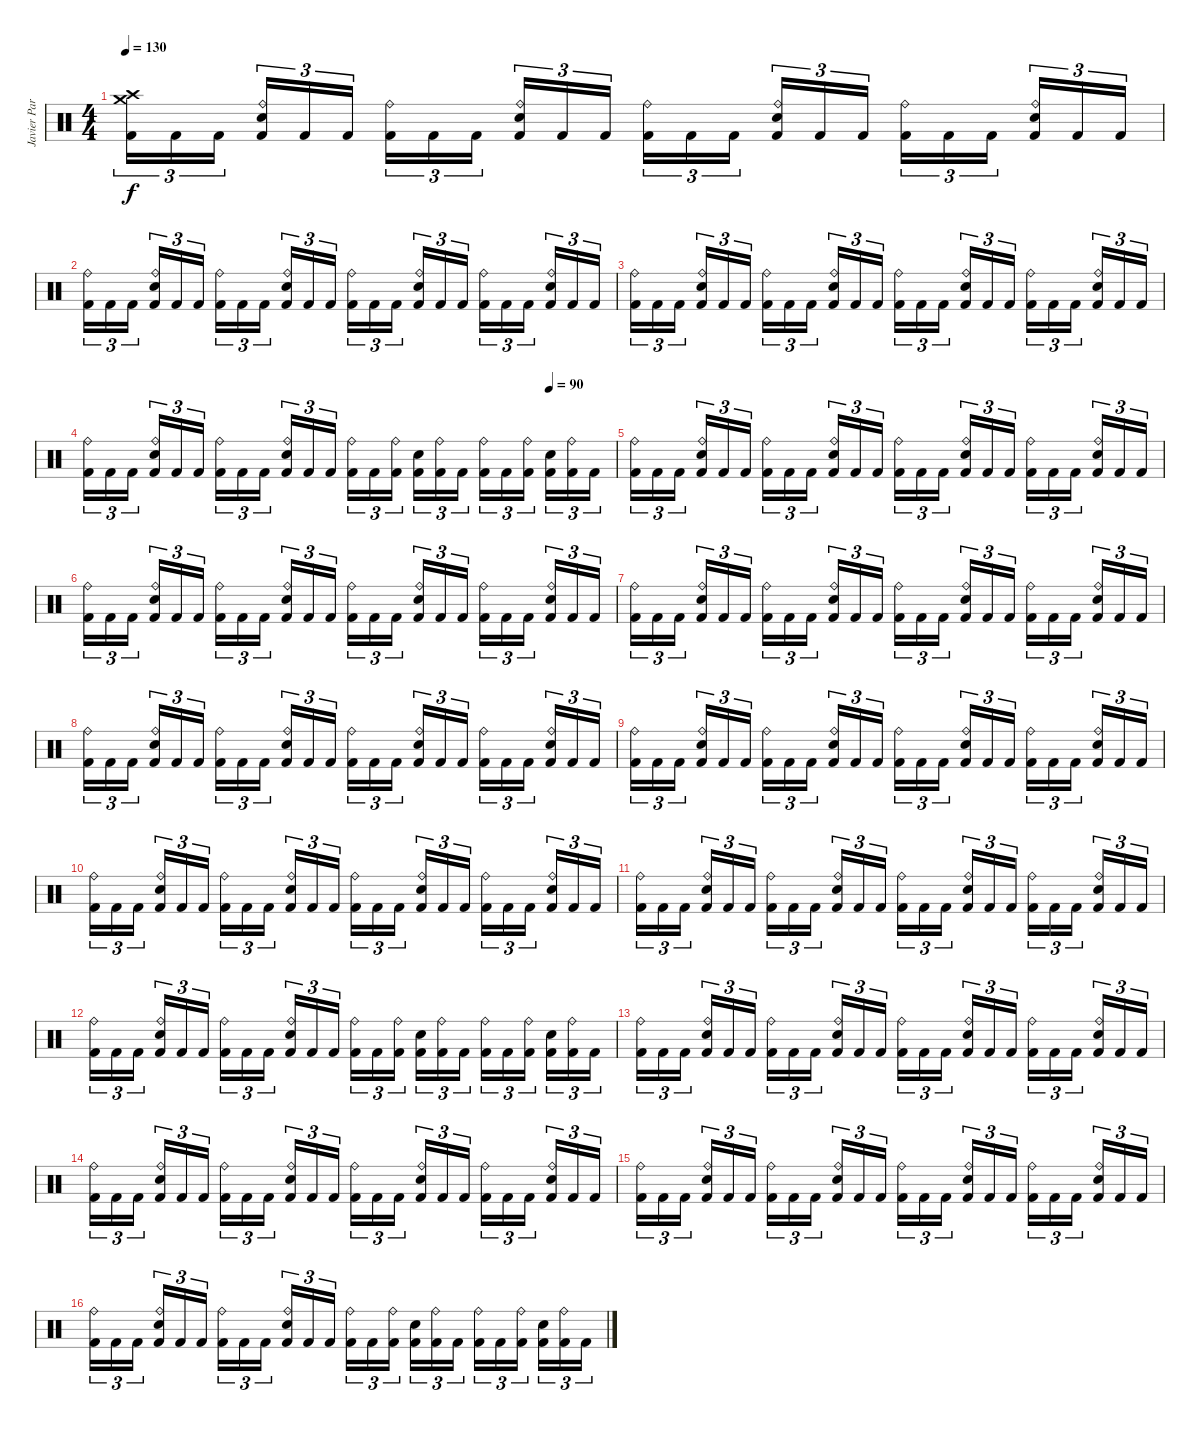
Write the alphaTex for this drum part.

\track ("Javier Partida" "Javier Par") {instrument percussion}
\staff {score}
\articulation defaults
\ts (4 4)
\tempo 130
\tempo 90
\tempo 130
\clef neutral
\ks c
("Crash medium (hit)" "Crash high (hit)" "Kick (hit) 2").16{tu (3 2) dy f} "Kick (hit) 2".16{tu (3 2)} "Kick (hit) 2".16{tu (3 2)} ("Ride (bell)" "Electric Snare (hit)" "Kick (hit) 2").16{tu (3 2)} "Kick (hit) 2".16{tu (3 2)} "Kick (hit) 2".16{tu (3 2)} ("Ride (bell)" "Kick (hit) 2").16{tu (3 2)} "Kick (hit) 2".16{tu (3 2)} "Kick (hit) 2".16{tu (3 2)} ("Ride (bell)" "Electric Snare (hit)" "Kick (hit) 2").16{tu (3 2)} "Kick (hit) 2".16{tu (3 2)} "Kick (hit) 2".16{tu (3 2)} ("Ride (bell)" "Kick (hit) 2").16{tu (3 2)} "Kick (hit) 2".16{tu (3 2)} "Kick (hit) 2".16{tu (3 2)} ("Ride (bell)" "Electric Snare (hit)" "Kick (hit) 2").16{tu (3 2)} "Kick (hit) 2".16{tu (3 2)} "Kick (hit) 2".16{tu (3 2)} ("Ride (bell)" "Kick (hit) 2").16{tu (3 2)} "Kick (hit) 2".16{tu (3 2)} "Kick (hit) 2".16{tu (3 2)} ("Ride (bell)" "Electric Snare (hit)" "Kick (hit) 2").16{tu (3 2)} "Kick (hit) 2".16{tu (3 2)} "Kick (hit) 2".16{tu (3 2)} |
("Ride (bell)" "Kick (hit) 2").16{tu (3 2)} "Kick (hit) 2".16{tu (3 2)} "Kick (hit) 2".16{tu (3 2)} ("Ride (bell)" "Electric Snare (hit)" "Kick (hit) 2").16{tu (3 2)} "Kick (hit) 2".16{tu (3 2)} "Kick (hit) 2".16{tu (3 2)} ("Ride (bell)" "Kick (hit) 2").16{tu (3 2)} "Kick (hit) 2".16{tu (3 2)} "Kick (hit) 2".16{tu (3 2)} ("Ride (bell)" "Electric Snare (hit)" "Kick (hit) 2").16{tu (3 2)} "Kick (hit) 2".16{tu (3 2)} "Kick (hit) 2".16{tu (3 2)} ("Ride (bell)" "Kick (hit) 2").16{tu (3 2)} "Kick (hit) 2".16{tu (3 2)} "Kick (hit) 2".16{tu (3 2)} ("Ride (bell)" "Electric Snare (hit)" "Kick (hit) 2").16{tu (3 2)} "Kick (hit) 2".16{tu (3 2)} "Kick (hit) 2".16{tu (3 2)} ("Ride (bell)" "Kick (hit) 2").16{tu (3 2)} "Kick (hit) 2".16{tu (3 2)} "Kick (hit) 2".16{tu (3 2)} ("Ride (bell)" "Electric Snare (hit)" "Kick (hit) 2").16{tu (3 2)} "Kick (hit) 2".16{tu (3 2)} "Kick (hit) 2".16{tu (3 2)} |
("Ride (bell)" "Kick (hit) 2").16{tu (3 2)} "Kick (hit) 2".16{tu (3 2)} "Kick (hit) 2".16{tu (3 2)} ("Ride (bell)" "Electric Snare (hit)" "Kick (hit) 2").16{tu (3 2)} "Kick (hit) 2".16{tu (3 2)} "Kick (hit) 2".16{tu (3 2)} ("Ride (bell)" "Kick (hit) 2").16{tu (3 2)} "Kick (hit) 2".16{tu (3 2)} "Kick (hit) 2".16{tu (3 2)} ("Ride (bell)" "Electric Snare (hit)" "Kick (hit) 2").16{tu (3 2)} "Kick (hit) 2".16{tu (3 2)} "Kick (hit) 2".16{tu (3 2)} ("Ride (bell)" "Kick (hit) 2").16{tu (3 2)} "Kick (hit) 2".16{tu (3 2)} "Kick (hit) 2".16{tu (3 2)} ("Ride (bell)" "Electric Snare (hit)" "Kick (hit) 2").16{tu (3 2)} "Kick (hit) 2".16{tu (3 2)} "Kick (hit) 2".16{tu (3 2)} ("Ride (bell)" "Kick (hit) 2").16{tu (3 2)} "Kick (hit) 2".16{tu (3 2)} "Kick (hit) 2".16{tu (3 2)} ("Ride (bell)" "Electric Snare (hit)" "Kick (hit) 2").16{tu (3 2)} "Kick (hit) 2".16{tu (3 2)} "Kick (hit) 2".16{tu (3 2)} |
\tempo (90 0.875)
("Ride (bell)" "Kick (hit) 2").16{tu (3 2)} "Kick (hit) 2".16{tu (3 2)} "Kick (hit) 2".16{tu (3 2)} ("Ride (bell)" "Electric Snare (hit)" "Kick (hit) 2").16{tu (3 2)} "Kick (hit) 2".16{tu (3 2)} "Kick (hit) 2".16{tu (3 2)} ("Ride (bell)" "Kick (hit) 2").16{tu (3 2)} "Kick (hit) 2".16{tu (3 2)} "Kick (hit) 2".16{tu (3 2)} ("Ride (bell)" "Electric Snare (hit)" "Kick (hit) 2").16{tu (3 2)} "Kick (hit) 2".16{tu (3 2)} "Kick (hit) 2".16{tu (3 2)} ("Ride (bell)" "Kick (hit) 2").16{tu (3 2)} "Kick (hit) 2".16{tu (3 2)} ("Ride (bell)" "Kick (hit) 2").16{tu (3 2)} ("Electric Snare (hit)" "Kick (hit) 2").16{tu (3 2)} ("Ride (bell)" "Kick (hit) 2").16{tu (3 2)} "Kick (hit) 2".16{tu (3 2)} ("Ride (bell)" "Kick (hit) 2").16{tu (3 2)} "Kick (hit) 2".16{tu (3 2)} ("Ride (bell)" "Kick (hit) 2").16{tu (3 2)} ("Electric Snare (hit)" "Kick (hit) 2").16{tu (3 2)} ("Ride (bell)" "Kick (hit) 2").16{tu (3 2)} "Kick (hit) 2".16{tu (3 2)} |
("Ride (bell)" "Kick (hit) 2").16{tu (3 2)} "Kick (hit) 2".16{tu (3 2)} "Kick (hit) 2".16{tu (3 2)} ("Ride (bell)" "Electric Snare (hit)" "Kick (hit) 2").16{tu (3 2)} "Kick (hit) 2".16{tu (3 2)} "Kick (hit) 2".16{tu (3 2)} ("Ride (bell)" "Kick (hit) 2").16{tu (3 2)} "Kick (hit) 2".16{tu (3 2)} "Kick (hit) 2".16{tu (3 2)} ("Ride (bell)" "Electric Snare (hit)" "Kick (hit) 2").16{tu (3 2)} "Kick (hit) 2".16{tu (3 2)} "Kick (hit) 2".16{tu (3 2)} ("Ride (bell)" "Kick (hit) 2").16{tu (3 2)} "Kick (hit) 2".16{tu (3 2)} "Kick (hit) 2".16{tu (3 2)} ("Ride (bell)" "Electric Snare (hit)" "Kick (hit) 2").16{tu (3 2)} "Kick (hit) 2".16{tu (3 2)} "Kick (hit) 2".16{tu (3 2)} ("Ride (bell)" "Kick (hit) 2").16{tu (3 2)} "Kick (hit) 2".16{tu (3 2)} "Kick (hit) 2".16{tu (3 2)} ("Ride (bell)" "Electric Snare (hit)" "Kick (hit) 2").16{tu (3 2)} "Kick (hit) 2".16{tu (3 2)} "Kick (hit) 2".16{tu (3 2)} |
("Ride (bell)" "Kick (hit) 2").16{tu (3 2)} "Kick (hit) 2".16{tu (3 2)} "Kick (hit) 2".16{tu (3 2)} ("Ride (bell)" "Electric Snare (hit)" "Kick (hit) 2").16{tu (3 2)} "Kick (hit) 2".16{tu (3 2)} "Kick (hit) 2".16{tu (3 2)} ("Ride (bell)" "Kick (hit) 2").16{tu (3 2)} "Kick (hit) 2".16{tu (3 2)} "Kick (hit) 2".16{tu (3 2)} ("Ride (bell)" "Electric Snare (hit)" "Kick (hit) 2").16{tu (3 2)} "Kick (hit) 2".16{tu (3 2)} "Kick (hit) 2".16{tu (3 2)} ("Ride (bell)" "Kick (hit) 2").16{tu (3 2)} "Kick (hit) 2".16{tu (3 2)} "Kick (hit) 2".16{tu (3 2)} ("Ride (bell)" "Electric Snare (hit)" "Kick (hit) 2").16{tu (3 2)} "Kick (hit) 2".16{tu (3 2)} "Kick (hit) 2".16{tu (3 2)} ("Ride (bell)" "Kick (hit) 2").16{tu (3 2)} "Kick (hit) 2".16{tu (3 2)} "Kick (hit) 2".16{tu (3 2)} ("Ride (bell)" "Electric Snare (hit)" "Kick (hit) 2").16{tu (3 2)} "Kick (hit) 2".16{tu (3 2)} "Kick (hit) 2".16{tu (3 2)} |
("Ride (bell)" "Kick (hit) 2").16{tu (3 2)} "Kick (hit) 2".16{tu (3 2)} "Kick (hit) 2".16{tu (3 2)} ("Ride (bell)" "Electric Snare (hit)" "Kick (hit) 2").16{tu (3 2)} "Kick (hit) 2".16{tu (3 2)} "Kick (hit) 2".16{tu (3 2)} ("Ride (bell)" "Kick (hit) 2").16{tu (3 2)} "Kick (hit) 2".16{tu (3 2)} "Kick (hit) 2".16{tu (3 2)} ("Ride (bell)" "Electric Snare (hit)" "Kick (hit) 2").16{tu (3 2)} "Kick (hit) 2".16{tu (3 2)} "Kick (hit) 2".16{tu (3 2)} ("Ride (bell)" "Kick (hit) 2").16{tu (3 2)} "Kick (hit) 2".16{tu (3 2)} "Kick (hit) 2".16{tu (3 2)} ("Ride (bell)" "Electric Snare (hit)" "Kick (hit) 2").16{tu (3 2)} "Kick (hit) 2".16{tu (3 2)} "Kick (hit) 2".16{tu (3 2)} ("Ride (bell)" "Kick (hit) 2").16{tu (3 2)} "Kick (hit) 2".16{tu (3 2)} "Kick (hit) 2".16{tu (3 2)} ("Ride (bell)" "Electric Snare (hit)" "Kick (hit) 2").16{tu (3 2)} "Kick (hit) 2".16{tu (3 2)} "Kick (hit) 2".16{tu (3 2)} |
("Ride (bell)" "Kick (hit) 2").16{tu (3 2)} "Kick (hit) 2".16{tu (3 2)} "Kick (hit) 2".16{tu (3 2)} ("Ride (bell)" "Electric Snare (hit)" "Kick (hit) 2").16{tu (3 2)} "Kick (hit) 2".16{tu (3 2)} "Kick (hit) 2".16{tu (3 2)} ("Ride (bell)" "Kick (hit) 2").16{tu (3 2)} "Kick (hit) 2".16{tu (3 2)} "Kick (hit) 2".16{tu (3 2)} ("Ride (bell)" "Electric Snare (hit)" "Kick (hit) 2").16{tu (3 2)} "Kick (hit) 2".16{tu (3 2)} "Kick (hit) 2".16{tu (3 2)} ("Ride (bell)" "Kick (hit) 2").16{tu (3 2)} "Kick (hit) 2".16{tu (3 2)} "Kick (hit) 2".16{tu (3 2)} ("Ride (bell)" "Electric Snare (hit)" "Kick (hit) 2").16{tu (3 2)} "Kick (hit) 2".16{tu (3 2)} "Kick (hit) 2".16{tu (3 2)} ("Ride (bell)" "Kick (hit) 2").16{tu (3 2)} "Kick (hit) 2".16{tu (3 2)} "Kick (hit) 2".16{tu (3 2)} ("Ride (bell)" "Electric Snare (hit)" "Kick (hit) 2").16{tu (3 2)} "Kick (hit) 2".16{tu (3 2)} "Kick (hit) 2".16{tu (3 2)} |
("Ride (bell)" "Kick (hit) 2").16{tu (3 2)} "Kick (hit) 2".16{tu (3 2)} "Kick (hit) 2".16{tu (3 2)} ("Ride (bell)" "Electric Snare (hit)" "Kick (hit) 2").16{tu (3 2)} "Kick (hit) 2".16{tu (3 2)} "Kick (hit) 2".16{tu (3 2)} ("Ride (bell)" "Kick (hit) 2").16{tu (3 2)} "Kick (hit) 2".16{tu (3 2)} "Kick (hit) 2".16{tu (3 2)} ("Ride (bell)" "Electric Snare (hit)" "Kick (hit) 2").16{tu (3 2)} "Kick (hit) 2".16{tu (3 2)} "Kick (hit) 2".16{tu (3 2)} ("Ride (bell)" "Kick (hit) 2").16{tu (3 2)} "Kick (hit) 2".16{tu (3 2)} "Kick (hit) 2".16{tu (3 2)} ("Ride (bell)" "Electric Snare (hit)" "Kick (hit) 2").16{tu (3 2)} "Kick (hit) 2".16{tu (3 2)} "Kick (hit) 2".16{tu (3 2)} ("Ride (bell)" "Kick (hit) 2").16{tu (3 2)} "Kick (hit) 2".16{tu (3 2)} "Kick (hit) 2".16{tu (3 2)} ("Ride (bell)" "Electric Snare (hit)" "Kick (hit) 2").16{tu (3 2)} "Kick (hit) 2".16{tu (3 2)} "Kick (hit) 2".16{tu (3 2)} |
("Ride (bell)" "Kick (hit) 2").16{tu (3 2)} "Kick (hit) 2".16{tu (3 2)} "Kick (hit) 2".16{tu (3 2)} ("Ride (bell)" "Electric Snare (hit)" "Kick (hit) 2").16{tu (3 2)} "Kick (hit) 2".16{tu (3 2)} "Kick (hit) 2".16{tu (3 2)} ("Ride (bell)" "Kick (hit) 2").16{tu (3 2)} "Kick (hit) 2".16{tu (3 2)} "Kick (hit) 2".16{tu (3 2)} ("Ride (bell)" "Electric Snare (hit)" "Kick (hit) 2").16{tu (3 2)} "Kick (hit) 2".16{tu (3 2)} "Kick (hit) 2".16{tu (3 2)} ("Ride (bell)" "Kick (hit) 2").16{tu (3 2)} "Kick (hit) 2".16{tu (3 2)} "Kick (hit) 2".16{tu (3 2)} ("Ride (bell)" "Electric Snare (hit)" "Kick (hit) 2").16{tu (3 2)} "Kick (hit) 2".16{tu (3 2)} "Kick (hit) 2".16{tu (3 2)} ("Ride (bell)" "Kick (hit) 2").16{tu (3 2)} "Kick (hit) 2".16{tu (3 2)} "Kick (hit) 2".16{tu (3 2)} ("Ride (bell)" "Electric Snare (hit)" "Kick (hit) 2").16{tu (3 2)} "Kick (hit) 2".16{tu (3 2)} "Kick (hit) 2".16{tu (3 2)} |
("Ride (bell)" "Kick (hit) 2").16{tu (3 2)} "Kick (hit) 2".16{tu (3 2)} "Kick (hit) 2".16{tu (3 2)} ("Ride (bell)" "Electric Snare (hit)" "Kick (hit) 2").16{tu (3 2)} "Kick (hit) 2".16{tu (3 2)} "Kick (hit) 2".16{tu (3 2)} ("Ride (bell)" "Kick (hit) 2").16{tu (3 2)} "Kick (hit) 2".16{tu (3 2)} "Kick (hit) 2".16{tu (3 2)} ("Ride (bell)" "Electric Snare (hit)" "Kick (hit) 2").16{tu (3 2)} "Kick (hit) 2".16{tu (3 2)} "Kick (hit) 2".16{tu (3 2)} ("Ride (bell)" "Kick (hit) 2").16{tu (3 2)} "Kick (hit) 2".16{tu (3 2)} "Kick (hit) 2".16{tu (3 2)} ("Ride (bell)" "Electric Snare (hit)" "Kick (hit) 2").16{tu (3 2)} "Kick (hit) 2".16{tu (3 2)} "Kick (hit) 2".16{tu (3 2)} ("Ride (bell)" "Kick (hit) 2").16{tu (3 2)} "Kick (hit) 2".16{tu (3 2)} "Kick (hit) 2".16{tu (3 2)} ("Ride (bell)" "Electric Snare (hit)" "Kick (hit) 2").16{tu (3 2)} "Kick (hit) 2".16{tu (3 2)} "Kick (hit) 2".16{tu (3 2)} |
("Ride (bell)" "Kick (hit) 2").16{tu (3 2)} "Kick (hit) 2".16{tu (3 2)} "Kick (hit) 2".16{tu (3 2)} ("Ride (bell)" "Electric Snare (hit)" "Kick (hit) 2").16{tu (3 2)} "Kick (hit) 2".16{tu (3 2)} "Kick (hit) 2".16{tu (3 2)} ("Ride (bell)" "Kick (hit) 2").16{tu (3 2)} "Kick (hit) 2".16{tu (3 2)} "Kick (hit) 2".16{tu (3 2)} ("Ride (bell)" "Electric Snare (hit)" "Kick (hit) 2").16{tu (3 2)} "Kick (hit) 2".16{tu (3 2)} "Kick (hit) 2".16{tu (3 2)} ("Ride (bell)" "Kick (hit) 2").16{tu (3 2)} "Kick (hit) 2".16{tu (3 2)} ("Ride (bell)" "Kick (hit) 2").16{tu (3 2)} ("Electric Snare (hit)" "Kick (hit) 2").16{tu (3 2)} ("Ride (bell)" "Kick (hit) 2").16{tu (3 2)} "Kick (hit) 2".16{tu (3 2)} ("Ride (bell)" "Kick (hit) 2").16{tu (3 2)} "Kick (hit) 2".16{tu (3 2)} ("Ride (bell)" "Kick (hit) 2").16{tu (3 2)} ("Electric Snare (hit)" "Kick (hit) 2").16{tu (3 2)} ("Ride (bell)" "Kick (hit) 2").16{tu (3 2)} "Kick (hit) 2".16{tu (3 2)} |
("Ride (bell)" "Kick (hit) 2").16{tu (3 2)} "Kick (hit) 2".16{tu (3 2)} "Kick (hit) 2".16{tu (3 2)} ("Ride (bell)" "Electric Snare (hit)" "Kick (hit) 2").16{tu (3 2)} "Kick (hit) 2".16{tu (3 2)} "Kick (hit) 2".16{tu (3 2)} ("Ride (bell)" "Kick (hit) 2").16{tu (3 2)} "Kick (hit) 2".16{tu (3 2)} "Kick (hit) 2".16{tu (3 2)} ("Ride (bell)" "Electric Snare (hit)" "Kick (hit) 2").16{tu (3 2)} "Kick (hit) 2".16{tu (3 2)} "Kick (hit) 2".16{tu (3 2)} ("Ride (bell)" "Kick (hit) 2").16{tu (3 2)} "Kick (hit) 2".16{tu (3 2)} "Kick (hit) 2".16{tu (3 2)} ("Ride (bell)" "Electric Snare (hit)" "Kick (hit) 2").16{tu (3 2)} "Kick (hit) 2".16{tu (3 2)} "Kick (hit) 2".16{tu (3 2)} ("Ride (bell)" "Kick (hit) 2").16{tu (3 2)} "Kick (hit) 2".16{tu (3 2)} "Kick (hit) 2".16{tu (3 2)} ("Ride (bell)" "Electric Snare (hit)" "Kick (hit) 2").16{tu (3 2)} "Kick (hit) 2".16{tu (3 2)} "Kick (hit) 2".16{tu (3 2)} |
("Ride (bell)" "Kick (hit) 2").16{tu (3 2)} "Kick (hit) 2".16{tu (3 2)} "Kick (hit) 2".16{tu (3 2)} ("Ride (bell)" "Electric Snare (hit)" "Kick (hit) 2").16{tu (3 2)} "Kick (hit) 2".16{tu (3 2)} "Kick (hit) 2".16{tu (3 2)} ("Ride (bell)" "Kick (hit) 2").16{tu (3 2)} "Kick (hit) 2".16{tu (3 2)} "Kick (hit) 2".16{tu (3 2)} ("Ride (bell)" "Electric Snare (hit)" "Kick (hit) 2").16{tu (3 2)} "Kick (hit) 2".16{tu (3 2)} "Kick (hit) 2".16{tu (3 2)} ("Ride (bell)" "Kick (hit) 2").16{tu (3 2)} "Kick (hit) 2".16{tu (3 2)} "Kick (hit) 2".16{tu (3 2)} ("Ride (bell)" "Electric Snare (hit)" "Kick (hit) 2").16{tu (3 2)} "Kick (hit) 2".16{tu (3 2)} "Kick (hit) 2".16{tu (3 2)} ("Ride (bell)" "Kick (hit) 2").16{tu (3 2)} "Kick (hit) 2".16{tu (3 2)} "Kick (hit) 2".16{tu (3 2)} ("Ride (bell)" "Electric Snare (hit)" "Kick (hit) 2").16{tu (3 2)} "Kick (hit) 2".16{tu (3 2)} "Kick (hit) 2".16{tu (3 2)} |
("Ride (bell)" "Kick (hit) 2").16{tu (3 2)} "Kick (hit) 2".16{tu (3 2)} "Kick (hit) 2".16{tu (3 2)} ("Ride (bell)" "Electric Snare (hit)" "Kick (hit) 2").16{tu (3 2)} "Kick (hit) 2".16{tu (3 2)} "Kick (hit) 2".16{tu (3 2)} ("Ride (bell)" "Kick (hit) 2").16{tu (3 2)} "Kick (hit) 2".16{tu (3 2)} "Kick (hit) 2".16{tu (3 2)} ("Ride (bell)" "Electric Snare (hit)" "Kick (hit) 2").16{tu (3 2)} "Kick (hit) 2".16{tu (3 2)} "Kick (hit) 2".16{tu (3 2)} ("Ride (bell)" "Kick (hit) 2").16{tu (3 2)} "Kick (hit) 2".16{tu (3 2)} "Kick (hit) 2".16{tu (3 2)} ("Ride (bell)" "Electric Snare (hit)" "Kick (hit) 2").16{tu (3 2)} "Kick (hit) 2".16{tu (3 2)} "Kick (hit) 2".16{tu (3 2)} ("Ride (bell)" "Kick (hit) 2").16{tu (3 2)} "Kick (hit) 2".16{tu (3 2)} "Kick (hit) 2".16{tu (3 2)} ("Ride (bell)" "Electric Snare (hit)" "Kick (hit) 2").16{tu (3 2)} "Kick (hit) 2".16{tu (3 2)} "Kick (hit) 2".16{tu (3 2)} |
("Ride (bell)" "Kick (hit) 2").16{tu (3 2)} "Kick (hit) 2".16{tu (3 2)} "Kick (hit) 2".16{tu (3 2)} ("Ride (bell)" "Electric Snare (hit)" "Kick (hit) 2").16{tu (3 2)} "Kick (hit) 2".16{tu (3 2)} "Kick (hit) 2".16{tu (3 2)} ("Ride (bell)" "Kick (hit) 2").16{tu (3 2)} "Kick (hit) 2".16{tu (3 2)} "Kick (hit) 2".16{tu (3 2)} ("Ride (bell)" "Electric Snare (hit)" "Kick (hit) 2").16{tu (3 2)} "Kick (hit) 2".16{tu (3 2)} "Kick (hit) 2".16{tu (3 2)} ("Ride (bell)" "Kick (hit) 2").16{tu (3 2)} "Kick (hit) 2".16{tu (3 2)} ("Ride (bell)" "Kick (hit) 2").16{tu (3 2)} ("Electric Snare (hit)" "Kick (hit) 2").16{tu (3 2)} ("Ride (bell)" "Kick (hit) 2").16{tu (3 2)} "Kick (hit) 2".16{tu (3 2)} ("Ride (bell)" "Kick (hit) 2").16{tu (3 2)} "Kick (hit) 2".16{tu (3 2)} ("Ride (bell)" "Kick (hit) 2").16{tu (3 2)} ("Electric Snare (hit)" "Kick (hit) 2").16{tu (3 2)} ("Ride (bell)" "Kick (hit) 2").16{tu (3 2)} "Kick (hit) 2".16{tu (3 2)}
